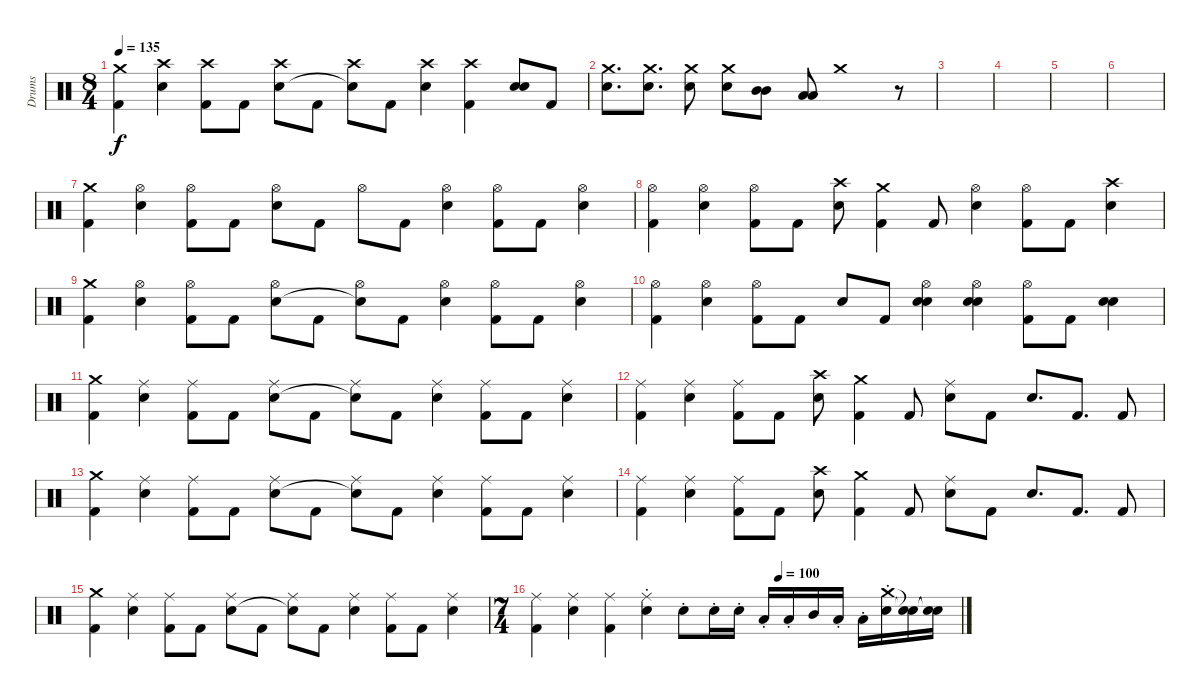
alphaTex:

\track ("Drums" "Drums") {instrument percussion}
\staff {score}
\articulation defaults
\ts (8 4)
\tempo 135
\clef neutral
\ks c
("Crash medium (hit)" "Kick (hit) 2").4{dy f} ("Crash high (hit)" "Electric Snare (hit)").4 ("Crash high (hit)" "Kick (hit) 2").8 "Kick (hit) 2".8 ("Crash high (hit)" "Electric Snare (hit)").8 "Kick (hit) 2".8 ("Crash high (hit)" "Snare (hit)"{t}).8 "Kick (hit) 2".8 ("Crash high (hit)" "Electric Snare (hit)").4 ("Crash high (hit)" "Kick (hit) 2").4 ("Electric Snare (hit)" "Electric Snare (hit)").8 "Kick (hit) 2".8 |
("Crash medium (hit)" "Electric Snare (hit)").8{d} ("Crash medium (hit)" "Electric Snare (hit)").8{d} ("Crash medium (hit)" "Electric Snare (hit)").8 ("Crash medium (hit)" "Electric Snare (hit)").8 ("Mid Tom (hit)" "Mid Tom (hit)").8 ("Low Tom (hit)" "Low Tom (hit)").8 "Crash medium (hit)".1 r.8 |
|
|
|
|
("Crash medium (hit)" "Kick (hit) 2").4 ("Hi-Hat (open)" "Electric Snare (hit)").4 ("Hi-Hat (open)" "Kick (hit) 2").8 "Kick (hit) 2".8 ("Hi-Hat (open)" "Electric Snare (hit)").8 "Kick (hit) 2".8 "Hi-Hat (open)".8 "Kick (hit) 2".8 ("Hi-Hat (open)" "Electric Snare (hit)").4 ("Hi-Hat (open)" "Kick (hit) 2").8 "Kick (hit) 2".8 ("Hi-Hat (open)" "Electric Snare (hit)").4 |
("Hi-Hat (open)" "Kick (hit) 2").4 ("Hi-Hat (open)" "Electric Snare (hit)").4 ("Hi-Hat (open)" "Kick (hit) 2").8 "Kick (hit) 2".8 ("Crash high (hit)" "Electric Snare (hit)").8 ("Crash medium (hit)" "Kick (hit) 2").4 "Kick (hit) 2".8 ("Hi-Hat (open)" "Electric Snare (hit)").4 ("Hi-Hat (open)" "Kick (hit) 2").8 "Kick (hit) 2".8 ("Crash high (hit)" "Electric Snare (hit)").4 |
("Crash medium (hit)" "Kick (hit) 2").4 ("Hi-Hat (open)" "Electric Snare (hit)").4 ("Hi-Hat (open)" "Kick (hit) 2").8 "Kick (hit) 2".8 ("Hi-Hat (open)" "Electric Snare (hit)").8 "Kick (hit) 2".8 ("Hi-Hat (open)" "Snare (hit)"{t}).8 "Kick (hit) 2".8 ("Hi-Hat (open)" "Electric Snare (hit)").4 ("Hi-Hat (open)" "Kick (hit) 2").8 "Kick (hit) 2".8 ("Hi-Hat (open)" "Electric Snare (hit)").4 |
("Hi-Hat (open)" "Kick (hit) 2").4 ("Hi-Hat (open)" "Electric Snare (hit)").4 ("Hi-Hat (open)" "Kick (hit) 2").8 "Kick (hit) 2".8 "Electric Snare (hit)".8 "Kick (hit) 2".8 ("Hi-Hat (open)" "Electric Snare (hit)" "Electric Snare (hit)").4 ("Hi-Hat (open)" "Electric Snare (hit)" "Electric Snare (hit)").4 ("Hi-Hat (open)" "Kick (hit) 2").8 "Kick (hit) 2".8 ("Electric Snare (hit)" "Electric Snare (hit)").4 |
("Crash medium (hit)" "Kick (hit) 2").4 ("Ride (middle)" "Electric Snare (hit)").4 ("Ride (middle)" "Kick (hit) 2").8 "Kick (hit) 2".8 ("Ride (middle)" "Electric Snare (hit)").8 "Kick (hit) 2".8 ("Ride (middle)" "Snare (hit)"{t}).8 "Kick (hit) 2".8 ("Ride (middle)" "Electric Snare (hit)").4 ("Ride (middle)" "Kick (hit) 2").8 "Kick (hit) 2".8 ("Ride (middle)" "Electric Snare (hit)").4 |
("Ride (middle)" "Kick (hit) 2").4 ("Ride (middle)" "Electric Snare (hit)").4 ("Ride (middle)" "Kick (hit) 2").8 "Kick (hit) 2".8 ("Crash high (hit)" "Electric Snare (hit)").8 ("Crash medium (hit)" "Kick (hit) 2").4 "Kick (hit) 2".8 ("Ride (middle)" "Electric Snare (hit)").8 "Kick (hit) 2".8 "Electric Snare (hit)".8{d} "Kick (hit) 2".8{d} "Kick (hit) 2".8 |
("Crash medium (hit)" "Kick (hit) 2").4 ("Ride (middle)" "Electric Snare (hit)").4 ("Ride (middle)" "Kick (hit) 2").8 "Kick (hit) 2".8 ("Ride (middle)" "Electric Snare (hit)").8 "Kick (hit) 2".8 ("Ride (middle)" "Snare (hit)"{t}).8 "Kick (hit) 2".8 ("Ride (middle)" "Electric Snare (hit)").4 ("Ride (middle)" "Kick (hit) 2").8 "Kick (hit) 2".8 ("Ride (middle)" "Electric Snare (hit)").4 |
("Ride (middle)" "Kick (hit) 2").4 ("Ride (middle)" "Electric Snare (hit)").4 ("Ride (middle)" "Kick (hit) 2").8 "Kick (hit) 2".8 ("Crash high (hit)" "Electric Snare (hit)").8 ("Crash medium (hit)" "Kick (hit) 2").4 "Kick (hit) 2".8 ("Ride (middle)" "Electric Snare (hit)").8 "Kick (hit) 2".8 "Electric Snare (hit)".8{d} "Kick (hit) 2".8{d} "Kick (hit) 2".8 |
("Crash medium (hit)" "Kick (hit) 2").4 ("Ride (middle)" "Electric Snare (hit)").4 ("Ride (middle)" "Kick (hit) 2").8 "Kick (hit) 2".8 ("Ride (middle)" "Electric Snare (hit)").8 "Kick (hit) 2".8 ("Ride (middle)" "Snare (hit)"{t}).8 "Kick (hit) 2".8 ("Ride (middle)" "Electric Snare (hit)").4 ("Ride (middle)" "Kick (hit) 2").8 "Kick (hit) 2".8 ("Ride (middle)" "Electric Snare (hit)").4 |
\ts (7 4)
\tempo (100 0.5714285714285714)
("Ride (middle)" "Kick (hit) 2").4 ("Ride (middle)" "Electric Snare (hit)").4 ("Ride (middle)" "Kick (hit) 2").4 ("Ride (middle)" "Electric Snare (hit)"{st}).4 "Electric Snare (hit)"{st}.8 "Electric Snare (hit)"{st}.16 "Electric Snare (hit)"{st}.16 "Low Tom (hit)"{st}.16 "Low Floor Tom (hit)"{st}.16 "Mid Tom (hit)".16 "Low Tom (hit)"{st}.16 "Low Floor Tom (hit)"{st}.16 ("Crash medium (hit)" "Electric Snare (hit)"{st}).16 ("Snare (hit)"{t} "Snare (hit)"{t}).16 ("Snare (hit)"{t} "Snare (hit)"{t}).16
